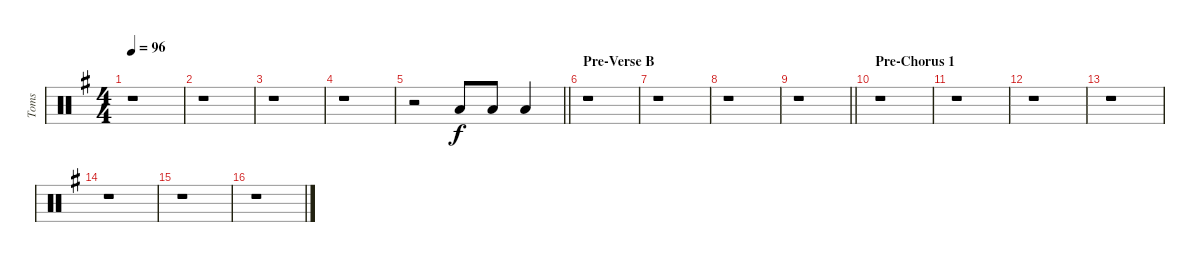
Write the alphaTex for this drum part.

\track ("Toms" "Toms") {instrument percussion}
\staff {score}
\articulation defaults
\ts (4 4)
\tempo 96
\clef neutral
\ks g
r.1{dy f} |
r.1 |
r.1 |
r.1 |
\barLineRight lightlight
r.2 "Low Tom (hit)".8 "Low Tom (hit)".8 "Low Tom (hit)".4 |
\section ("" "Pre-Verse B")
r.1 |
r.1 |
r.1 |
\barLineRight lightlight
r.1 |
\section ("" "Pre-Chorus 1")
r.1 |
r.1 |
r.1 |
r.1 |
r.1 |
r.1 |
r.1
